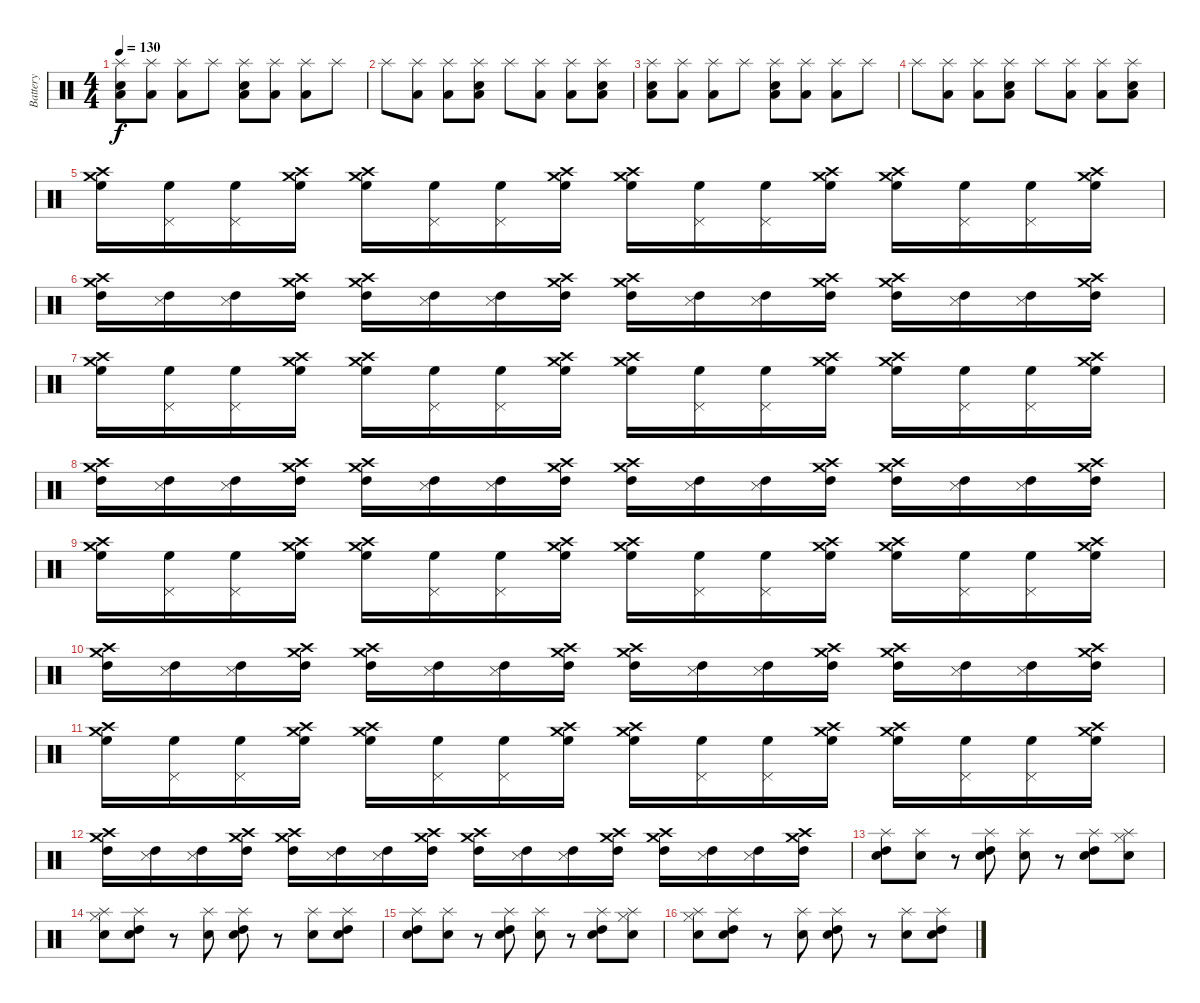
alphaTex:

\track ("Battery" "Battery") {instrument percussion}
\staff {score}
\articulation defaults
\ts (4 4)
\tempo 130
\clef neutral
\ks c
("Splash (hit)" "Low Floor Tom (hit)" "Electric Snare (hit)").8{dy f} ("Splash (hit)" "Low Floor Tom (hit)").8 ("Splash (hit)" "Low Floor Tom (hit)").8 "Splash (hit)".8 ("Splash (hit)" "Low Floor Tom (hit)" "Electric Snare (hit)").8 ("Splash (hit)" "Low Floor Tom (hit)").8 ("Splash (hit)" "Low Floor Tom (hit)").8 "Splash (hit)".8 |
"Splash (hit)".8 ("Splash (hit)" "Low Floor Tom (hit)").8 ("Splash (hit)" "Low Floor Tom (hit)").8 ("Splash (hit)" "Low Floor Tom (hit)" "Electric Snare (hit)").8 "Splash (hit)".8 ("Splash (hit)" "Low Floor Tom (hit)").8 ("Splash (hit)" "Low Floor Tom (hit)").8 ("Splash (hit)" "Low Floor Tom (hit)" "Electric Snare (hit)").8 |
("Splash (hit)" "Low Floor Tom (hit)" "Electric Snare (hit)").8 ("Splash (hit)" "Low Floor Tom (hit)").8 ("Splash (hit)" "Low Floor Tom (hit)").8 "Splash (hit)".8 ("Splash (hit)" "Low Floor Tom (hit)" "Electric Snare (hit)").8 ("Splash (hit)" "Low Floor Tom (hit)").8 ("Splash (hit)" "Low Floor Tom (hit)").8 "Splash (hit)".8 |
"Splash (hit)".8 ("Splash (hit)" "Low Floor Tom (hit)").8 ("Splash (hit)" "Low Floor Tom (hit)").8 ("Splash (hit)" "Low Floor Tom (hit)" "Electric Snare (hit)").8 "Splash (hit)".8 ("Splash (hit)" "Low Floor Tom (hit)").8 ("Splash (hit)" "Low Floor Tom (hit)").8 ("Splash (hit)" "Low Floor Tom (hit)" "Electric Snare (hit)").8 |
("High Floor Tom (hit)" "Crash high (hit)" "Crash medium (hit)").16 ("High Floor Tom (hit)" "Pedal Hi-Hat (hit)").16 ("High Floor Tom (hit)" "Pedal Hi-Hat (hit)").16 ("High Floor Tom (hit)" "Crash high (hit)" "Crash medium (hit)").16 ("High Floor Tom (hit)" "Crash high (hit)" "Crash medium (hit)").16 ("High Floor Tom (hit)" "Pedal Hi-Hat (hit)").16 ("High Floor Tom (hit)" "Pedal Hi-Hat (hit)").16 ("High Floor Tom (hit)" "Crash high (hit)" "Crash medium (hit)").16 ("High Floor Tom (hit)" "Crash high (hit)" "Crash medium (hit)").16 ("High Floor Tom (hit)" "Pedal Hi-Hat (hit)").16 ("High Floor Tom (hit)" "Pedal Hi-Hat (hit)").16 ("High Floor Tom (hit)" "Crash high (hit)" "Crash medium (hit)").16 ("High Floor Tom (hit)" "Crash high (hit)" "Crash medium (hit)").16 ("High Floor Tom (hit)" "Pedal Hi-Hat (hit)").16 ("High Floor Tom (hit)" "Pedal Hi-Hat (hit)").16 ("High Floor Tom (hit)" "Crash high (hit)" "Crash medium (hit)").16 |
("High Tom (hit)" "Crash high (hit)" "Crash medium (hit)").16 ("High Tom (hit)" "Snare (side stick) 3").16 ("High Tom (hit)" "Snare (side stick) 3").16 ("High Tom (hit)" "Crash high (hit)" "Crash medium (hit)").16 ("High Tom (hit)" "Crash high (hit)" "Crash medium (hit)").16 ("High Tom (hit)" "Snare (side stick) 3").16 ("High Tom (hit)" "Snare (side stick) 3").16 ("High Tom (hit)" "Crash high (hit)" "Crash medium (hit)").16 ("High Tom (hit)" "Crash high (hit)" "Crash medium (hit)").16 ("High Tom (hit)" "Snare (side stick) 3").16 ("High Tom (hit)" "Snare (side stick) 3").16 ("High Tom (hit)" "Crash high (hit)" "Crash medium (hit)").16 ("High Tom (hit)" "Crash high (hit)" "Crash medium (hit)").16 ("High Tom (hit)" "Snare (side stick) 3").16 ("High Tom (hit)" "Snare (side stick) 3").16 ("High Tom (hit)" "Crash high (hit)" "Crash medium (hit)").16 |
("High Floor Tom (hit)" "Crash high (hit)" "Crash medium (hit)").16 ("High Floor Tom (hit)" "Pedal Hi-Hat (hit)").16 ("High Floor Tom (hit)" "Pedal Hi-Hat (hit)").16 ("High Floor Tom (hit)" "Crash high (hit)" "Crash medium (hit)").16 ("High Floor Tom (hit)" "Crash high (hit)" "Crash medium (hit)").16 ("High Floor Tom (hit)" "Pedal Hi-Hat (hit)").16 ("High Floor Tom (hit)" "Pedal Hi-Hat (hit)").16 ("High Floor Tom (hit)" "Crash high (hit)" "Crash medium (hit)").16 ("High Floor Tom (hit)" "Crash high (hit)" "Crash medium (hit)").16 ("High Floor Tom (hit)" "Pedal Hi-Hat (hit)").16 ("High Floor Tom (hit)" "Pedal Hi-Hat (hit)").16 ("High Floor Tom (hit)" "Crash high (hit)" "Crash medium (hit)").16 ("High Floor Tom (hit)" "Crash high (hit)" "Crash medium (hit)").16 ("High Floor Tom (hit)" "Pedal Hi-Hat (hit)").16 ("High Floor Tom (hit)" "Pedal Hi-Hat (hit)").16 ("High Floor Tom (hit)" "Crash high (hit)" "Crash medium (hit)").16 |
("High Tom (hit)" "Crash high (hit)" "Crash medium (hit)").16 ("High Tom (hit)" "Snare (side stick) 3").16 ("High Tom (hit)" "Snare (side stick) 3").16 ("High Tom (hit)" "Crash high (hit)" "Crash medium (hit)").16 ("High Tom (hit)" "Crash high (hit)" "Crash medium (hit)").16 ("High Tom (hit)" "Snare (side stick) 3").16 ("High Tom (hit)" "Snare (side stick) 3").16 ("High Tom (hit)" "Crash high (hit)" "Crash medium (hit)").16 ("High Tom (hit)" "Crash high (hit)" "Crash medium (hit)").16 ("High Tom (hit)" "Snare (side stick) 3").16 ("High Tom (hit)" "Snare (side stick) 3").16 ("High Tom (hit)" "Crash high (hit)" "Crash medium (hit)").16 ("High Tom (hit)" "Crash high (hit)" "Crash medium (hit)").16 ("High Tom (hit)" "Snare (side stick) 3").16 ("High Tom (hit)" "Snare (side stick) 3").16 ("High Tom (hit)" "Crash high (hit)" "Crash medium (hit)").16 |
("High Floor Tom (hit)" "Crash high (hit)" "Crash medium (hit)").16 ("High Floor Tom (hit)" "Pedal Hi-Hat (hit)").16 ("High Floor Tom (hit)" "Pedal Hi-Hat (hit)").16 ("High Floor Tom (hit)" "Crash high (hit)" "Crash medium (hit)").16 ("High Floor Tom (hit)" "Crash high (hit)" "Crash medium (hit)").16 ("High Floor Tom (hit)" "Pedal Hi-Hat (hit)").16 ("High Floor Tom (hit)" "Pedal Hi-Hat (hit)").16 ("High Floor Tom (hit)" "Crash high (hit)" "Crash medium (hit)").16 ("High Floor Tom (hit)" "Crash high (hit)" "Crash medium (hit)").16 ("High Floor Tom (hit)" "Pedal Hi-Hat (hit)").16 ("High Floor Tom (hit)" "Pedal Hi-Hat (hit)").16 ("High Floor Tom (hit)" "Crash high (hit)" "Crash medium (hit)").16 ("High Floor Tom (hit)" "Crash high (hit)" "Crash medium (hit)").16 ("High Floor Tom (hit)" "Pedal Hi-Hat (hit)").16 ("High Floor Tom (hit)" "Pedal Hi-Hat (hit)").16 ("High Floor Tom (hit)" "Crash high (hit)" "Crash medium (hit)").16 |
("High Tom (hit)" "Crash high (hit)" "Crash medium (hit)").16 ("High Tom (hit)" "Snare (side stick) 3").16 ("High Tom (hit)" "Snare (side stick) 3").16 ("High Tom (hit)" "Crash high (hit)" "Crash medium (hit)").16 ("High Tom (hit)" "Crash high (hit)" "Crash medium (hit)").16 ("High Tom (hit)" "Snare (side stick) 3").16 ("High Tom (hit)" "Snare (side stick) 3").16 ("High Tom (hit)" "Crash high (hit)" "Crash medium (hit)").16 ("High Tom (hit)" "Crash high (hit)" "Crash medium (hit)").16 ("High Tom (hit)" "Snare (side stick) 3").16 ("High Tom (hit)" "Snare (side stick) 3").16 ("High Tom (hit)" "Crash high (hit)" "Crash medium (hit)").16 ("High Tom (hit)" "Crash high (hit)" "Crash medium (hit)").16 ("High Tom (hit)" "Snare (side stick) 3").16 ("High Tom (hit)" "Snare (side stick) 3").16 ("High Tom (hit)" "Crash high (hit)" "Crash medium (hit)").16 |
("High Floor Tom (hit)" "Crash high (hit)" "Crash medium (hit)").16 ("High Floor Tom (hit)" "Pedal Hi-Hat (hit)").16 ("High Floor Tom (hit)" "Pedal Hi-Hat (hit)").16 ("High Floor Tom (hit)" "Crash high (hit)" "Crash medium (hit)").16 ("High Floor Tom (hit)" "Crash high (hit)" "Crash medium (hit)").16 ("High Floor Tom (hit)" "Pedal Hi-Hat (hit)").16 ("High Floor Tom (hit)" "Pedal Hi-Hat (hit)").16 ("High Floor Tom (hit)" "Crash high (hit)" "Crash medium (hit)").16 ("High Floor Tom (hit)" "Crash high (hit)" "Crash medium (hit)").16 ("High Floor Tom (hit)" "Pedal Hi-Hat (hit)").16 ("High Floor Tom (hit)" "Pedal Hi-Hat (hit)").16 ("High Floor Tom (hit)" "Crash high (hit)" "Crash medium (hit)").16 ("High Floor Tom (hit)" "Crash high (hit)" "Crash medium (hit)").16 ("High Floor Tom (hit)" "Pedal Hi-Hat (hit)").16 ("High Floor Tom (hit)" "Pedal Hi-Hat (hit)").16 ("High Floor Tom (hit)" "Crash high (hit)" "Crash medium (hit)").16 |
("High Tom (hit)" "Crash high (hit)" "Crash medium (hit)").16 ("High Tom (hit)" "Snare (side stick) 3").16 ("High Tom (hit)" "Snare (side stick) 3").16 ("High Tom (hit)" "Crash high (hit)" "Crash medium (hit)").16 ("High Tom (hit)" "Crash high (hit)" "Crash medium (hit)").16 ("High Tom (hit)" "Snare (side stick) 3").16 ("High Tom (hit)" "Snare (side stick) 3").16 ("High Tom (hit)" "Crash high (hit)" "Crash medium (hit)").16 ("High Tom (hit)" "Crash high (hit)" "Crash medium (hit)").16 ("High Tom (hit)" "Snare (side stick) 3").16 ("High Tom (hit)" "Snare (side stick) 3").16 ("High Tom (hit)" "Crash high (hit)" "Crash medium (hit)").16 ("High Tom (hit)" "Crash high (hit)" "Crash medium (hit)").16 ("High Tom (hit)" "Snare (side stick) 3").16 ("High Tom (hit)" "Snare (side stick) 3").16 ("High Tom (hit)" "Crash high (hit)" "Crash medium (hit)").16 |
("Snare (hit) 2" "Splash (hit)" "High Tom (hit)").8 ("Snare (hit) 2" "Splash (hit)").8 r.8 ("Snare (hit) 2" "Splash (hit)" "High Tom (hit)").8 ("Snare (hit) 2" "Splash (hit)").8 r.8 ("Snare (hit) 2" "Splash (hit)" "High Tom (hit)").8 ("Snare (hit) 2" "Splash (hit)" "Hi-Hat (closed)").8 |
("Snare (hit) 2" "Splash (hit)" "Hi-Hat (closed)").8 ("Snare (hit) 2" "Splash (hit)" "High Tom (hit)").8 r.8 ("Snare (hit) 2" "Splash (hit)").8 ("Snare (hit) 2" "Splash (hit)" "High Tom (hit)").8 r.8 ("Snare (hit) 2" "Splash (hit)").8 ("Snare (hit) 2" "Splash (hit)" "High Tom (hit)").8 |
("Snare (hit) 2" "Splash (hit)" "High Tom (hit)").8 ("Snare (hit) 2" "Splash (hit)").8 r.8 ("Snare (hit) 2" "Splash (hit)" "High Tom (hit)").8 ("Snare (hit) 2" "Splash (hit)").8 r.8 ("Snare (hit) 2" "Splash (hit)" "High Tom (hit)").8 ("Snare (hit) 2" "Splash (hit)" "Hi-Hat (closed)").8 |
("Snare (hit) 2" "Splash (hit)" "Hi-Hat (closed)").8 ("Snare (hit) 2" "Splash (hit)" "High Tom (hit)").8 r.8 ("Snare (hit) 2" "Splash (hit)").8 ("Snare (hit) 2" "Splash (hit)" "High Tom (hit)").8 r.8 ("Snare (hit) 2" "Splash (hit)").8 ("Snare (hit) 2" "Splash (hit)" "High Tom (hit)").8
